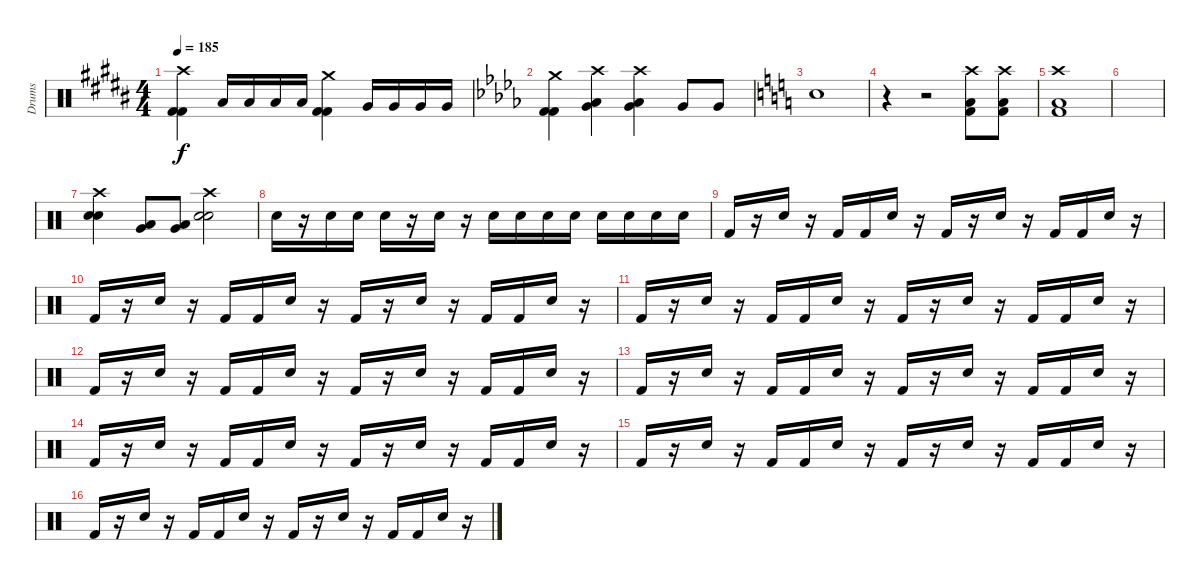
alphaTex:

\track ("Drums" "Drums") {instrument percussion}
\staff {score}
\articulation defaults
\ts (4 4)
\tempo 185
\clef neutral
\ks b
("Crash high (hit)" "Kick (hit) 2" "Kick (hit) 2").4{dy f} "Low Tom (hit)".16 "Low Tom (hit)".16 "Low Tom (hit)".16 "Low Tom (hit)".16 ("Crash medium (hit)" "Kick (hit) 2" "Kick (hit) 2").4 "Very Low Tom (hit)".16 "Very Low Tom (hit)".16 "Very Low Tom (hit)".16 "Very Low Tom (hit)".16 |
\ks db
("Crash medium (hit)" "Kick (hit) 2" "Kick (hit) 2").4 ("Crash high (hit)" "Very Low Tom (hit)" "Low Tom (hit)").4 ("Crash high (hit)" "Very Low Tom (hit)" "Low Tom (hit)").4 "Very Low Tom (hit)".8 "Very Low Tom (hit)".8 |
\ks c "Electric Snare (hit)".1
|
r.4 r.2 ("Crash high (hit)" "Low Floor Tom (hit)" "Kick (hit) 2").8 ("Crash high (hit)" "Low Floor Tom (hit)" "Kick (hit) 2").8 |
("Crash high (hit)" "Low Floor Tom (hit)" "Kick (hit) 2").1 |
|
("Crash high (hit)" "Electric Snare (hit)" "Electric Snare (hit)").4 ("Very Low Tom (hit)" "Low Floor Tom (hit)").8 ("Very Low Tom (hit)" "Low Floor Tom (hit)").8 ("Crash high (hit)" "Electric Snare (hit)" "Electric Snare (hit)").2 |
"Electric Snare (hit)".16 r.16 "Electric Snare (hit)".16 "Electric Snare (hit)".16 "Electric Snare (hit)".16 r.16 "Electric Snare (hit)".16 r.16 "Electric Snare (hit)".16 "Electric Snare (hit)".16 "Electric Snare (hit)".16 "Electric Snare (hit)".16 "Electric Snare (hit)".16 "Electric Snare (hit)".16 "Electric Snare (hit)".16 "Electric Snare (hit)".16 |
"Kick (hit) 2".16 r.16 "Electric Snare (hit)".16 r.16 "Kick (hit) 2".16 "Kick (hit) 2".16 "Electric Snare (hit)".16 r.16 "Kick (hit) 2".16 r.16 "Electric Snare (hit)".16 r.16 "Kick (hit) 2".16 "Kick (hit) 2".16 "Electric Snare (hit)".16 r.16 |
"Kick (hit) 2".16 r.16 "Electric Snare (hit)".16 r.16 "Kick (hit) 2".16 "Kick (hit) 2".16 "Electric Snare (hit)".16 r.16 "Kick (hit) 2".16 r.16 "Electric Snare (hit)".16 r.16 "Kick (hit) 2".16 "Kick (hit) 2".16 "Electric Snare (hit)".16 r.16 |
"Kick (hit) 2".16 r.16 "Electric Snare (hit)".16 r.16 "Kick (hit) 2".16 "Kick (hit) 2".16 "Electric Snare (hit)".16 r.16 "Kick (hit) 2".16 r.16 "Electric Snare (hit)".16 r.16 "Kick (hit) 2".16 "Kick (hit) 2".16 "Electric Snare (hit)".16 r.16 |
"Kick (hit) 2".16 r.16 "Electric Snare (hit)".16 r.16 "Kick (hit) 2".16 "Kick (hit) 2".16 "Electric Snare (hit)".16 r.16 "Kick (hit) 2".16 r.16 "Electric Snare (hit)".16 r.16 "Kick (hit) 2".16 "Kick (hit) 2".16 "Electric Snare (hit)".16 r.16 |
"Kick (hit) 2".16 r.16 "Electric Snare (hit)".16 r.16 "Kick (hit) 2".16 "Kick (hit) 2".16 "Electric Snare (hit)".16 r.16 "Kick (hit) 2".16 r.16 "Electric Snare (hit)".16 r.16 "Kick (hit) 2".16 "Kick (hit) 2".16 "Electric Snare (hit)".16 r.16 |
"Kick (hit) 2".16 r.16 "Electric Snare (hit)".16 r.16 "Kick (hit) 2".16 "Kick (hit) 2".16 "Electric Snare (hit)".16 r.16 "Kick (hit) 2".16 r.16 "Electric Snare (hit)".16 r.16 "Kick (hit) 2".16 "Kick (hit) 2".16 "Electric Snare (hit)".16 r.16 |
"Kick (hit) 2".16 r.16 "Electric Snare (hit)".16 r.16 "Kick (hit) 2".16 "Kick (hit) 2".16 "Electric Snare (hit)".16 r.16 "Kick (hit) 2".16 r.16 "Electric Snare (hit)".16 r.16 "Kick (hit) 2".16 "Kick (hit) 2".16 "Electric Snare (hit)".16 r.16 |
"Kick (hit) 2".16 r.16 "Electric Snare (hit)".16 r.16 "Kick (hit) 2".16 "Kick (hit) 2".16 "Electric Snare (hit)".16 r.16 "Kick (hit) 2".16 r.16 "Electric Snare (hit)".16 r.16 "Kick (hit) 2".16 "Kick (hit) 2".16 "Electric Snare (hit)".16 r.16
